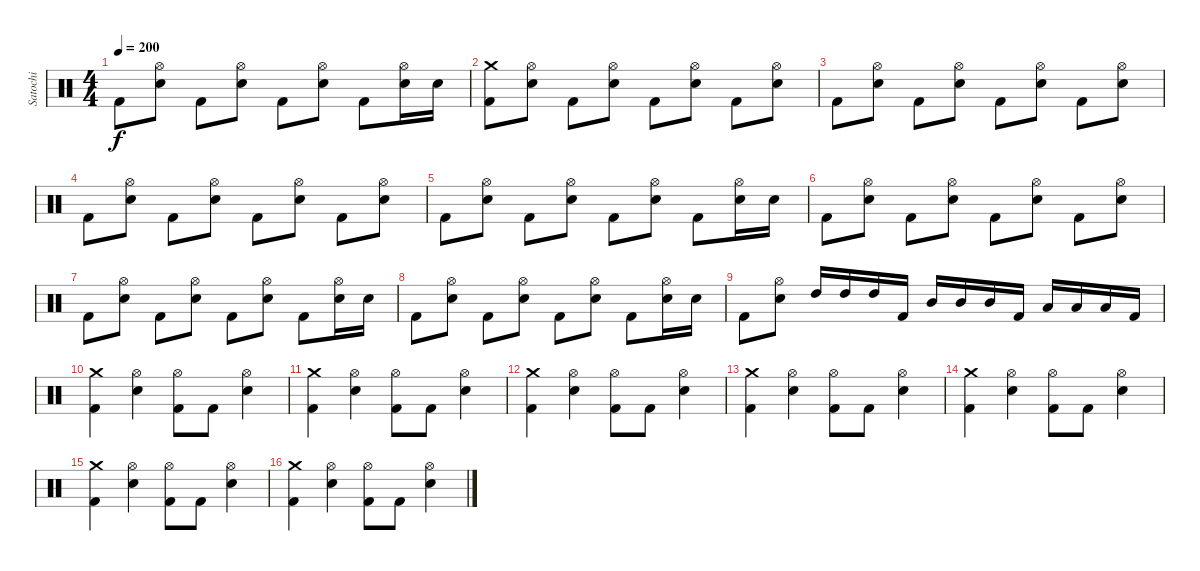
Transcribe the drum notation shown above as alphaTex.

\track ("Satochi" "Satochi") {instrument percussion}
\staff {score}
\articulation defaults
\ts (4 4)
\tempo 200
\clef neutral
\ks c "Kick (hit) 2".8{dy f}
("Hi-Hat (open)" "Electric Snare (hit)").8 "Kick (hit) 2".8 ("Hi-Hat (open)" "Electric Snare (hit)").8 "Kick (hit) 2".8 ("Hi-Hat (open)" "Electric Snare (hit)").8 "Kick (hit) 2".8 ("Hi-Hat (open)" "Electric Snare (hit)").16 "Electric Snare (hit)".16 |
("Crash medium (hit)" "Kick (hit) 2").8 ("Hi-Hat (open)" "Electric Snare (hit)").8 "Kick (hit) 2".8 ("Hi-Hat (open)" "Electric Snare (hit)").8 "Kick (hit) 2".8 ("Hi-Hat (open)" "Electric Snare (hit)").8 "Kick (hit) 2".8 ("Hi-Hat (open)" "Electric Snare (hit)").8 |
"Kick (hit) 2".8 ("Hi-Hat (open)" "Electric Snare (hit)").8 "Kick (hit) 2".8 ("Hi-Hat (open)" "Electric Snare (hit)").8 "Kick (hit) 2".8 ("Hi-Hat (open)" "Electric Snare (hit)").8 "Kick (hit) 2".8 ("Hi-Hat (open)" "Electric Snare (hit)").8 |
"Kick (hit) 2".8 ("Hi-Hat (open)" "Electric Snare (hit)").8 "Kick (hit) 2".8 ("Hi-Hat (open)" "Electric Snare (hit)").8 "Kick (hit) 2".8 ("Hi-Hat (open)" "Electric Snare (hit)").8 "Kick (hit) 2".8 ("Hi-Hat (open)" "Electric Snare (hit)").8 |
"Kick (hit) 2".8 ("Hi-Hat (open)" "Electric Snare (hit)").8 "Kick (hit) 2".8 ("Hi-Hat (open)" "Electric Snare (hit)").8 "Kick (hit) 2".8 ("Hi-Hat (open)" "Electric Snare (hit)").8 "Kick (hit) 2".8 ("Hi-Hat (open)" "Electric Snare (hit)").16 "Electric Snare (hit)".16 |
"Kick (hit) 2".8 ("Hi-Hat (open)" "Electric Snare (hit)").8 "Kick (hit) 2".8 ("Hi-Hat (open)" "Electric Snare (hit)").8 "Kick (hit) 2".8 ("Hi-Hat (open)" "Electric Snare (hit)").8 "Kick (hit) 2".8 ("Hi-Hat (open)" "Electric Snare (hit)").8 |
"Kick (hit) 2".8 ("Hi-Hat (open)" "Electric Snare (hit)").8 "Kick (hit) 2".8 ("Hi-Hat (open)" "Electric Snare (hit)").8 "Kick (hit) 2".8 ("Hi-Hat (open)" "Electric Snare (hit)").8 "Kick (hit) 2".8 ("Hi-Hat (open)" "Electric Snare (hit)").16 "Electric Snare (hit)".16 |
"Kick (hit) 2".8 ("Hi-Hat (open)" "Electric Snare (hit)").8 "Kick (hit) 2".8 ("Hi-Hat (open)" "Electric Snare (hit)").8 "Kick (hit) 2".8 ("Hi-Hat (open)" "Electric Snare (hit)").8 "Kick (hit) 2".8 ("Hi-Hat (open)" "Electric Snare (hit)").16 "Electric Snare (hit)".16 |
"Kick (hit) 2".8 ("Hi-Hat (open)" "Electric Snare (hit)").8 "High Tom (hit)".16 "High Tom (hit)".16 "High Tom (hit)".16 "Kick (hit) 2".16 "Mid Tom (hit)".16 "Mid Tom (hit)".16 "Mid Tom (hit)".16 "Kick (hit) 2".16 "Low Tom (hit)".16 "Low Tom (hit)".16 "Low Tom (hit)".16 "Kick (hit) 2".16 |
("Crash medium (hit)" "Kick (hit) 2").4 ("Hi-Hat (open)" "Electric Snare (hit)").4 ("Hi-Hat (open)" "Kick (hit) 2").8 "Kick (hit) 2".8 ("Hi-Hat (open)" "Electric Snare (hit)").4 |
("Crash medium (hit)" "Kick (hit) 2").4 ("Hi-Hat (open)" "Electric Snare (hit)").4 ("Hi-Hat (open)" "Kick (hit) 2").8 "Kick (hit) 2".8 ("Hi-Hat (open)" "Electric Snare (hit)").4 |
("Crash medium (hit)" "Kick (hit) 2").4 ("Hi-Hat (open)" "Electric Snare (hit)").4 ("Hi-Hat (open)" "Kick (hit) 2").8 "Kick (hit) 2".8 ("Hi-Hat (open)" "Electric Snare (hit)").4 |
("Crash medium (hit)" "Kick (hit) 2").4 ("Hi-Hat (open)" "Electric Snare (hit)").4 ("Hi-Hat (open)" "Kick (hit) 2").8 "Kick (hit) 2".8 ("Hi-Hat (open)" "Electric Snare (hit)").4 |
("Crash medium (hit)" "Kick (hit) 2").4 ("Hi-Hat (open)" "Electric Snare (hit)").4 ("Hi-Hat (open)" "Kick (hit) 2").8 "Kick (hit) 2".8 ("Hi-Hat (open)" "Electric Snare (hit)").4 |
("Crash medium (hit)" "Kick (hit) 2").4 ("Hi-Hat (open)" "Electric Snare (hit)").4 ("Hi-Hat (open)" "Kick (hit) 2").8 "Kick (hit) 2".8 ("Hi-Hat (open)" "Electric Snare (hit)").4 |
("Crash medium (hit)" "Kick (hit) 2").4 ("Hi-Hat (open)" "Electric Snare (hit)").4 ("Hi-Hat (open)" "Kick (hit) 2").8 "Kick (hit) 2".8 ("Hi-Hat (open)" "Electric Snare (hit)").4
